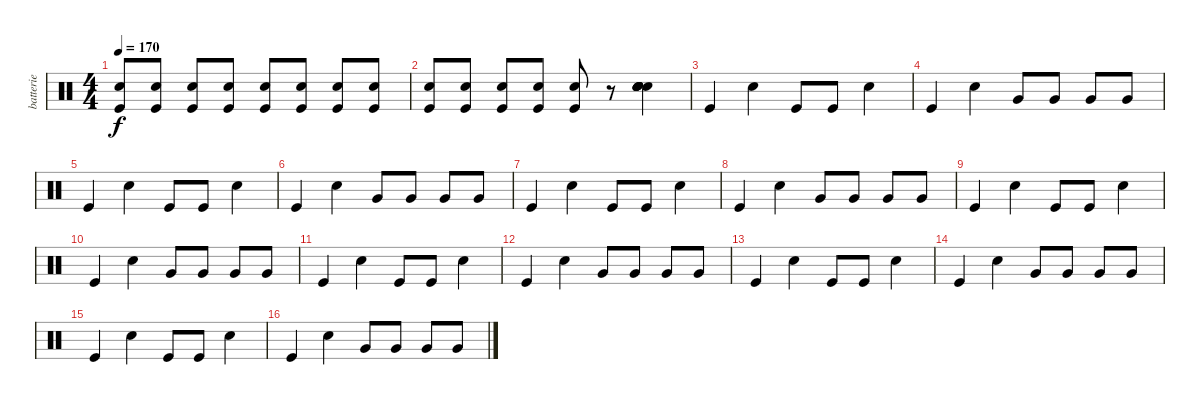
\track ("batterie " "batterie ") {instrument percussion}
\staff {score}
\articulation defaults
\ts (4 4)
\tempo 170
\clef neutral
\ks c
("Snare (hit) 2" "Kick (hit)").8{dy f} ("Snare (hit) 2" "Kick (hit)").8 ("Snare (hit) 2" "Kick (hit)").8 ("Snare (hit) 2" "Kick (hit)").8 ("Snare (hit) 2" "Kick (hit)").8 ("Snare (hit) 2" "Kick (hit)").8 ("Snare (hit) 2" "Kick (hit)").8 ("Snare (hit) 2" "Kick (hit)").8 |
("Snare (hit) 2" "Kick (hit)").8 ("Snare (hit) 2" "Kick (hit)").8 ("Snare (hit) 2" "Kick (hit)").8 ("Snare (hit) 2" "Kick (hit)").8 ("Snare (hit) 2" "Kick (hit)").8 r.8 ("Hand Clap (hit)" "Hand Clap (hit)" "Hand Clap (hit)" "Snare (hit) 2" "Hand Clap (hit)" "Hand Clap (hit)").4 |
"Kick (hit)".4 "Snare (hit) 2".4 "Kick (hit)".8 "Kick (hit)".8 "Snare (hit) 2".4 |
"Kick (hit)".4 "Snare (hit) 2".4 "Very Low Tom (hit)".8 "Very Low Tom (hit)".8 "Very Low Tom (hit)".8 "Very Low Tom (hit)".8 |
"Kick (hit)".4 "Snare (hit) 2".4 "Kick (hit)".8 "Kick (hit)".8 "Snare (hit) 2".4 |
"Kick (hit)".4 "Snare (hit) 2".4 "Very Low Tom (hit)".8 "Very Low Tom (hit)".8 "Very Low Tom (hit)".8 "Very Low Tom (hit)".8 |
"Kick (hit)".4 "Snare (hit) 2".4 "Kick (hit)".8 "Kick (hit)".8 "Snare (hit) 2".4 |
"Kick (hit)".4 "Snare (hit) 2".4 "Very Low Tom (hit)".8 "Very Low Tom (hit)".8 "Very Low Tom (hit)".8 "Very Low Tom (hit)".8 |
"Kick (hit)".4 "Snare (hit) 2".4 "Kick (hit)".8 "Kick (hit)".8 "Snare (hit) 2".4 |
"Kick (hit)".4 "Snare (hit) 2".4 "Very Low Tom (hit)".8 "Very Low Tom (hit)".8 "Very Low Tom (hit)".8 "Very Low Tom (hit)".8 |
"Kick (hit)".4 "Snare (hit) 2".4 "Kick (hit)".8 "Kick (hit)".8 "Snare (hit) 2".4 |
"Kick (hit)".4 "Snare (hit) 2".4 "Very Low Tom (hit)".8 "Very Low Tom (hit)".8 "Very Low Tom (hit)".8 "Very Low Tom (hit)".8 |
"Kick (hit)".4 "Snare (hit) 2".4 "Kick (hit)".8 "Kick (hit)".8 "Snare (hit) 2".4 |
"Kick (hit)".4 "Snare (hit) 2".4 "Very Low Tom (hit)".8 "Very Low Tom (hit)".8 "Very Low Tom (hit)".8 "Very Low Tom (hit)".8 |
"Kick (hit)".4 "Snare (hit) 2".4 "Kick (hit)".8 "Kick (hit)".8 "Snare (hit) 2".4 |
"Kick (hit)".4 "Snare (hit) 2".4 "Very Low Tom (hit)".8 "Very Low Tom (hit)".8 "Very Low Tom (hit)".8 "Very Low Tom (hit)".8
